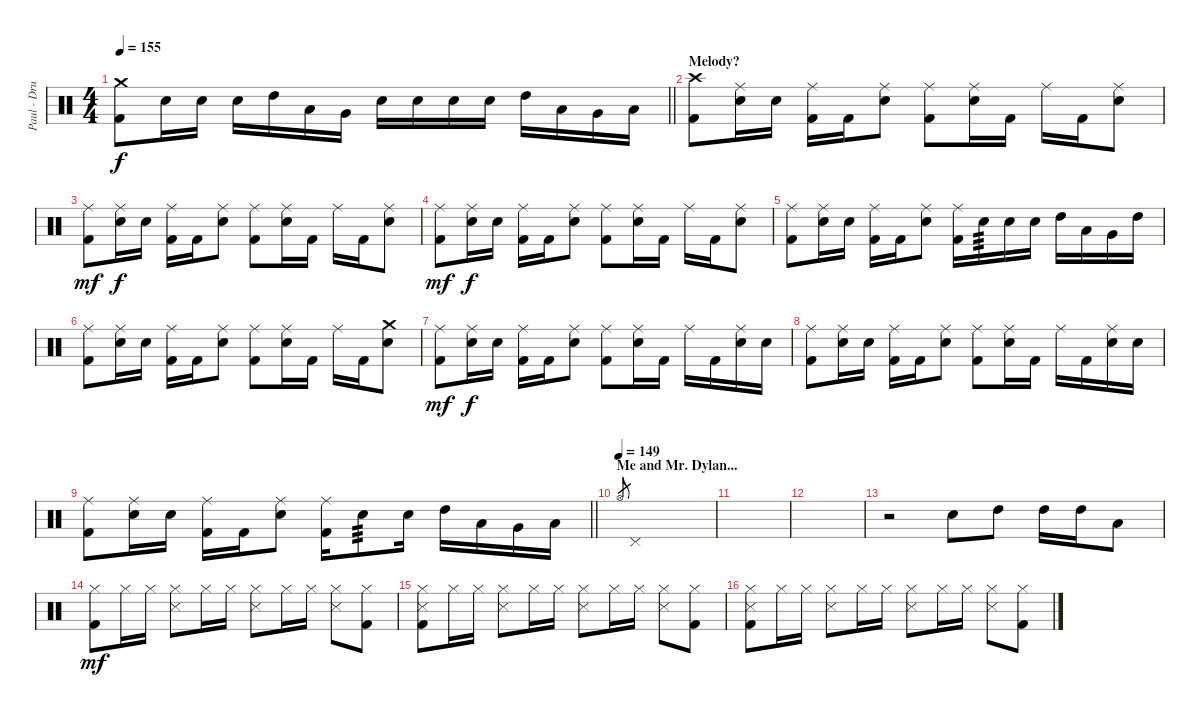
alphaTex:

\track ("Paul - Drums" "Paul - Dru") {instrument percussion}
\staff {score}
\articulation defaults
\ts (4 4)
\tempo 155
\clef neutral
\barLineRight lightlight
\ks c
("Crash medium (hit)" "Kick (hit) 2").8{dy f} "Electric Snare (hit)".16 "Electric Snare (hit)".16 "Electric Snare (hit)".16 "High Tom (hit)".16 "Low Tom (hit)".16 "Very Low Tom (hit)".16 "Electric Snare (hit)".16 "Electric Snare (hit)".16 "Electric Snare (hit)".16 "Electric Snare (hit)".16 "High Tom (hit)".16 "Low Tom (hit)".16 "Very Low Tom (hit)".16 "Low Floor Tom (hit)".16 |
\section ("" "Melody?")
("Crash high (hit)" "Kick (hit) 2").8 ("Ride (middle)" "Electric Snare (hit)").16 "Electric Snare (hit)".16 ("Ride (middle)" "Kick (hit) 2").16 "Kick (hit) 2".16 ("Ride (middle)" "Electric Snare (hit)").8 ("Ride (middle)" "Kick (hit) 2").8 ("Ride (middle)" "Electric Snare (hit)").16 "Kick (hit) 2".16 "Ride (middle)".16 "Kick (hit) 2".16 ("Ride (middle)" "Electric Snare (hit)").8 |
("Ride (middle)" "Kick (hit) 2").8{dy mf} ("Ride (middle)" "Electric Snare (hit)").16{dy f} "Electric Snare (hit)".16 ("Ride (middle)" "Kick (hit) 2").16 "Kick (hit) 2".16 ("Ride (middle)" "Electric Snare (hit)").8 ("Ride (middle)" "Kick (hit) 2").8 ("Ride (middle)" "Electric Snare (hit)").16 "Kick (hit) 2".16 "Ride (middle)".16 "Kick (hit) 2".16 ("Ride (middle)" "Electric Snare (hit)").8 |
("Ride (middle)" "Kick (hit) 2").8{dy mf} ("Ride (middle)" "Electric Snare (hit)").16{dy f} "Electric Snare (hit)".16 ("Ride (middle)" "Kick (hit) 2").16 "Kick (hit) 2".16 ("Ride (middle)" "Electric Snare (hit)").8 ("Ride (middle)" "Kick (hit) 2").8 ("Ride (middle)" "Electric Snare (hit)").16 "Kick (hit) 2".16 "Ride (middle)".16 "Kick (hit) 2".16 ("Ride (middle)" "Electric Snare (hit)").8 |
("Ride (middle)" "Kick (hit) 2").8 ("Ride (middle)" "Electric Snare (hit)").16 "Electric Snare (hit)".16 ("Ride (middle)" "Kick (hit) 2").16 "Kick (hit) 2".16 ("Ride (middle)" "Electric Snare (hit)").8 ("Ride (middle)" "Kick (hit) 2").16 "Electric Snare (hit)".16{tp 3} "Electric Snare (hit)".16 "Electric Snare (hit)".16 "High Tom (hit)".16 "Low Tom (hit)".16 "Very Low Tom (hit)".16 "High Tom (hit)".16 |
("Ride (middle)" "Kick (hit) 2").8 ("Ride (middle)" "Electric Snare (hit)").16 "Electric Snare (hit)".16 ("Ride (middle)" "Kick (hit) 2").16 "Kick (hit) 2".16 ("Ride (middle)" "Electric Snare (hit)").8 ("Ride (middle)" "Kick (hit) 2").8 ("Ride (middle)" "Electric Snare (hit)").16 "Kick (hit) 2".16 "Ride (middle)".16 "Kick (hit) 2".16 ("Crash medium (hit)" "Electric Snare (hit)").8 |
("Ride (middle)" "Kick (hit) 2").8{dy mf} ("Ride (middle)" "Electric Snare (hit)").16{dy f} "Electric Snare (hit)".16 ("Ride (middle)" "Kick (hit) 2").16 "Kick (hit) 2".16 ("Ride (middle)" "Electric Snare (hit)").8 ("Ride (middle)" "Kick (hit) 2").8 ("Ride (middle)" "Electric Snare (hit)").16 "Kick (hit) 2".16 "Ride (middle)".16 "Kick (hit) 2".16 ("Ride (middle)" "Electric Snare (hit)").16 "Electric Snare (hit)".16 |
("Ride (middle)" "Kick (hit) 2").8 ("Ride (middle)" "Electric Snare (hit)").16 "Electric Snare (hit)".16 ("Ride (middle)" "Kick (hit) 2").16 "Kick (hit) 2".16 ("Ride (middle)" "Electric Snare (hit)").8 ("Ride (middle)" "Kick (hit) 2").8 ("Ride (middle)" "Electric Snare (hit)").16 "Kick (hit) 2".16 "Ride (middle)".16 "Kick (hit) 2".16 ("Ride (middle)" "Electric Snare (hit)").16 "Electric Snare (hit)".16 |
\barLineRight lightlight
("Ride (middle)" "Kick (hit) 2").8 ("Ride (middle)" "Electric Snare (hit)").16 "Electric Snare (hit)".16 ("Ride (middle)" "Kick (hit) 2").16 "Kick (hit) 2".16 ("Ride (middle)" "Electric Snare (hit)").8 ("Ride (middle)" "Kick (hit) 2").16 "Electric Snare (hit)".8{tp 3} "Electric Snare (hit)".16 "High Tom (hit)".16 "Low Tom (hit)".16 "Very Low Tom (hit)".16 "Low Floor Tom (hit)".16 |
\section ("" "Me and Mr. Dylan...")
\tempo (149)
"Hi-Hat (open)".8{gr} "Pedal Hi-Hat (hit)".1 |
|
|
r.2 "Electric Snare (hit)".8 "High Tom (hit)".8 "High Tom (hit)".16 "High Tom (hit)".16 "Low Tom (hit)".8 |
("Hi-Hat (closed)" "Kick (hit) 2").8{dy mf} "Hi-Hat (closed)".16 "Hi-Hat (closed)".16 ("Hi-Hat (closed)" "Snare (side stick) 3").8 "Hi-Hat (closed)".16 "Hi-Hat (closed)".16 ("Hi-Hat (closed)" "Snare (side stick) 3").8 "Hi-Hat (closed)".16 "Hi-Hat (closed)".16 ("Hi-Hat (closed)" "Snare (side stick) 3").8 ("Hi-Hat (closed)" "Kick (hit) 2").8 |
("Hi-Hat (closed)" "Snare (side stick) 3" "Kick (hit) 2").8 "Hi-Hat (closed)".16 "Hi-Hat (closed)".16 ("Hi-Hat (closed)" "Snare (side stick) 3").8 "Hi-Hat (closed)".16 "Hi-Hat (closed)".16 ("Hi-Hat (closed)" "Snare (side stick) 3").8 "Hi-Hat (closed)".16 "Hi-Hat (closed)".16 ("Hi-Hat (closed)" "Snare (side stick) 3").8 ("Hi-Hat (closed)" "Kick (hit) 2").8 |
("Hi-Hat (closed)" "Snare (side stick) 3" "Kick (hit) 2").8 "Hi-Hat (closed)".16 "Hi-Hat (closed)".16 ("Hi-Hat (closed)" "Snare (side stick) 3").8 "Hi-Hat (closed)".16 "Hi-Hat (closed)".16 ("Hi-Hat (closed)" "Snare (side stick) 3").8 "Hi-Hat (closed)".16 "Hi-Hat (closed)".16 ("Hi-Hat (closed)" "Snare (side stick) 3").8 ("Hi-Hat (closed)" "Kick (hit) 2").8
